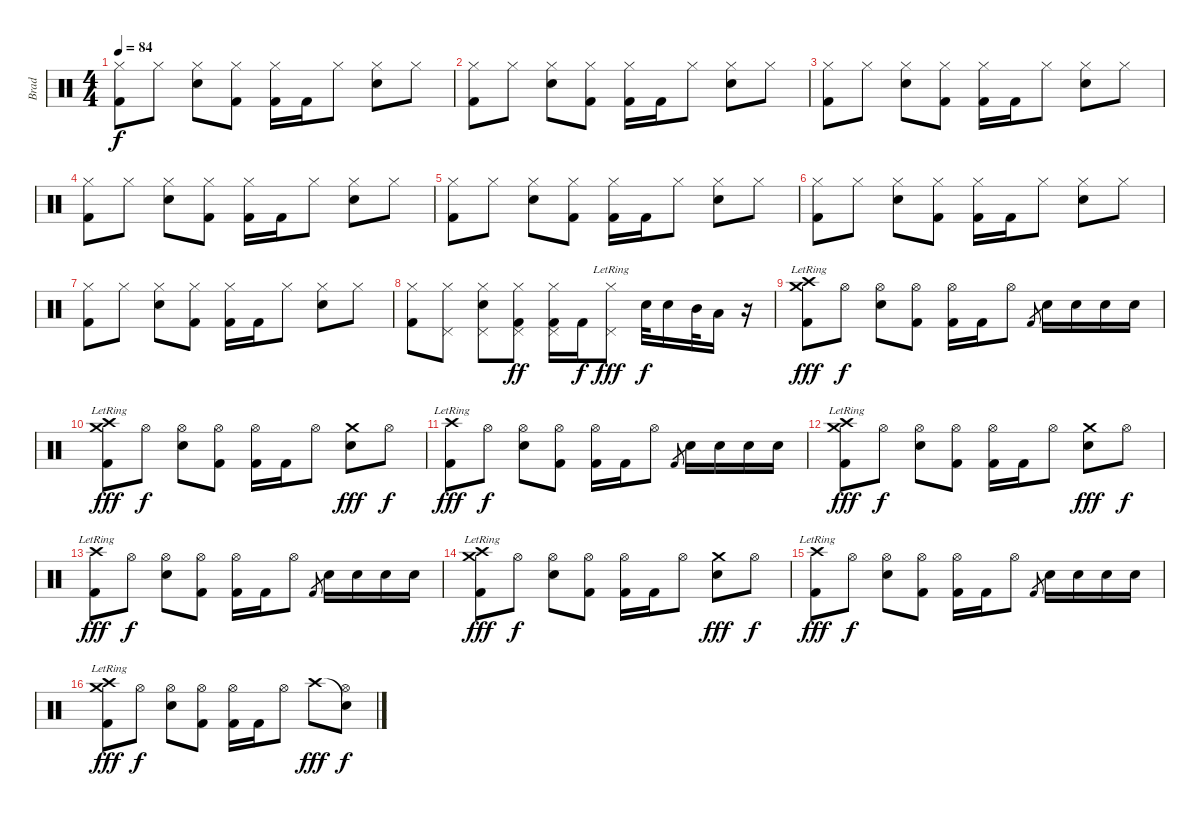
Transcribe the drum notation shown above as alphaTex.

\track ("Brad" "Brad") {instrument percussion}
\staff {score}
\articulation defaults
\ts (4 4)
\tempo 84
\clef neutral
\ks c
("Hi-Hat (closed)" "Kick (hit) 2").8{dy f} "Hi-Hat (closed)".8 ("Hi-Hat (closed)" "Electric Snare (hit)").8 ("Hi-Hat (closed)" "Kick (hit) 2").8 ("Hi-Hat (closed)" "Kick (hit) 2").16 "Kick (hit) 2".16 "Hi-Hat (closed)".8 ("Hi-Hat (closed)" "Electric Snare (hit)").8 "Hi-Hat (closed)".8 |
("Hi-Hat (closed)" "Kick (hit) 2").8 "Hi-Hat (closed)".8 ("Hi-Hat (closed)" "Electric Snare (hit)").8 ("Hi-Hat (closed)" "Kick (hit) 2").8 ("Hi-Hat (closed)" "Kick (hit) 2").16 "Kick (hit) 2".16 "Hi-Hat (closed)".8 ("Hi-Hat (closed)" "Electric Snare (hit)").8 "Hi-Hat (closed)".8 |
("Hi-Hat (closed)" "Kick (hit) 2").8 "Hi-Hat (closed)".8 ("Hi-Hat (closed)" "Electric Snare (hit)").8 ("Hi-Hat (closed)" "Kick (hit) 2").8 ("Hi-Hat (closed)" "Kick (hit) 2").16 "Kick (hit) 2".16 "Hi-Hat (closed)".8 ("Hi-Hat (closed)" "Electric Snare (hit)").8 "Hi-Hat (closed)".8 |
("Hi-Hat (closed)" "Kick (hit) 2").8 "Hi-Hat (closed)".8 ("Hi-Hat (closed)" "Electric Snare (hit)").8 ("Hi-Hat (closed)" "Kick (hit) 2").8 ("Hi-Hat (closed)" "Kick (hit) 2").16 "Kick (hit) 2".16 "Hi-Hat (closed)".8 ("Hi-Hat (closed)" "Electric Snare (hit)").8 "Hi-Hat (closed)".8 |
("Hi-Hat (closed)" "Kick (hit) 2").8 "Hi-Hat (closed)".8 ("Hi-Hat (closed)" "Electric Snare (hit)").8 ("Hi-Hat (closed)" "Kick (hit) 2").8 ("Hi-Hat (closed)" "Kick (hit) 2").16 "Kick (hit) 2".16 "Hi-Hat (closed)".8 ("Hi-Hat (closed)" "Electric Snare (hit)").8 "Hi-Hat (closed)".8 |
("Hi-Hat (closed)" "Kick (hit) 2").8 "Hi-Hat (closed)".8 ("Hi-Hat (closed)" "Electric Snare (hit)").8 ("Hi-Hat (closed)" "Kick (hit) 2").8 ("Hi-Hat (closed)" "Kick (hit) 2").16 "Kick (hit) 2".16 "Hi-Hat (closed)".8 ("Hi-Hat (closed)" "Electric Snare (hit)").8 "Hi-Hat (closed)".8 |
("Hi-Hat (closed)" "Kick (hit) 2").8 "Hi-Hat (closed)".8 ("Hi-Hat (closed)" "Electric Snare (hit)").8 ("Hi-Hat (closed)" "Kick (hit) 2").8 ("Hi-Hat (closed)" "Kick (hit) 2").16 "Kick (hit) 2".16 "Hi-Hat (closed)".8 ("Hi-Hat (closed)" "Electric Snare (hit)").8 "Hi-Hat (closed)".8 |
("Hi-Hat (closed)" "Kick (hit) 2").8 ("Pedal Hi-Hat (hit)" "Hi-Hat (closed)").8 ("Pedal Hi-Hat (hit)" "Hi-Hat (closed)" "Electric Snare (hit)").8 ("Pedal Hi-Hat (hit)" "Hi-Hat (closed)" "Kick (hit) 2").8{dy ff} ("Pedal Hi-Hat (hit)" "Hi-Hat (closed)" "Kick (hit) 2").16 "Kick (hit) 2".16{dy f} ("Pedal Hi-Hat (hit)" "Hi-Hat (closed)"{lr}).8{dy fff} "Electric Snare (hit)".32{dy f} "Electric Snare (hit)".16 "Mid Tom (hit)".32 "Low Tom (hit)".16 r.16 |
("Crash high (hit)"{lr} "Crash medium (hit)" "Kick (hit) 2").8{dy fff} "Hi-Hat (open)".8{dy f} ("Hi-Hat (open)" "Electric Snare (hit)").8 ("Hi-Hat (open)" "Kick (hit) 2").8 ("Hi-Hat (open)" "Kick (hit) 2").16 "Kick (hit) 2".16 "Hi-Hat (open)".8 "Kick (hit) 2".8{gr} "Electric Snare (hit)".16 "Electric Snare (hit)".16 "Electric Snare (hit)".16 "Electric Snare (hit)".16 |
("Crash high (hit)"{lr} "Crash medium (hit)"{lr} "Kick (hit) 2").8{dy fff} "Hi-Hat (open)".8{dy f} ("Hi-Hat (open)" "Electric Snare (hit)").8 ("Hi-Hat (open)" "Kick (hit) 2").8 ("Hi-Hat (open)" "Kick (hit) 2").16 "Kick (hit) 2".16 "Hi-Hat (open)".8 ("Crash medium (hit)" "Electric Snare (hit)").8{dy fff} "Hi-Hat (open)".8{dy f} |
("Crash high (hit)"{lr} "Kick (hit) 2").8{dy fff} "Hi-Hat (open)".8{dy f} ("Hi-Hat (open)" "Electric Snare (hit)").8 ("Hi-Hat (open)" "Kick (hit) 2").8 ("Hi-Hat (open)" "Kick (hit) 2").16 "Kick (hit) 2".16 "Hi-Hat (open)".8 "Kick (hit) 2".8{gr} "Electric Snare (hit)".16 "Electric Snare (hit)".16 "Electric Snare (hit)".16 "Electric Snare (hit)".16 |
("Crash high (hit)"{lr} "Crash medium (hit)"{lr} "Kick (hit) 2").8{dy fff} "Hi-Hat (open)".8{dy f} ("Hi-Hat (open)" "Electric Snare (hit)").8 ("Hi-Hat (open)" "Kick (hit) 2").8 ("Hi-Hat (open)" "Kick (hit) 2").16 "Kick (hit) 2".16 "Hi-Hat (open)".8 ("Crash medium (hit)" "Electric Snare (hit)").8{dy fff} "Hi-Hat (open)".8{dy f} |
("Crash high (hit)"{lr} "Kick (hit) 2").8{dy fff} "Hi-Hat (open)".8{dy f} ("Hi-Hat (open)" "Electric Snare (hit)").8 ("Hi-Hat (open)" "Kick (hit) 2").8 ("Hi-Hat (open)" "Kick (hit) 2").16 "Kick (hit) 2".16 "Hi-Hat (open)".8 "Kick (hit) 2".8{gr} "Electric Snare (hit)".16 "Electric Snare (hit)".16 "Electric Snare (hit)".16 "Electric Snare (hit)".16 |
("Crash high (hit)"{lr} "Crash medium (hit)"{lr} "Kick (hit) 2").8{dy fff} "Hi-Hat (open)".8{dy f} ("Hi-Hat (open)" "Electric Snare (hit)").8 ("Hi-Hat (open)" "Kick (hit) 2").8 ("Hi-Hat (open)" "Kick (hit) 2").16 "Kick (hit) 2".16 "Hi-Hat (open)".8 ("Crash medium (hit)" "Electric Snare (hit)").8{dy fff} "Hi-Hat (open)".8{dy f} |
("Crash high (hit)"{lr} "Kick (hit) 2").8{dy fff} "Hi-Hat (open)".8{dy f} ("Hi-Hat (open)" "Electric Snare (hit)").8 ("Hi-Hat (open)" "Kick (hit) 2").8 ("Hi-Hat (open)" "Kick (hit) 2").16 "Kick (hit) 2".16 "Hi-Hat (open)".8 "Kick (hit) 2".8{gr} "Electric Snare (hit)".16 "Electric Snare (hit)".16 "Electric Snare (hit)".16 "Electric Snare (hit)".16 |
("Crash high (hit)"{lr} "Crash medium (hit)"{lr} "Kick (hit) 2").8{dy fff} "Hi-Hat (open)".8{dy f} ("Hi-Hat (open)" "Electric Snare (hit)").8 ("Hi-Hat (open)" "Kick (hit) 2").8 ("Hi-Hat (open)" "Kick (hit) 2").16 "Kick (hit) 2".16 "Hi-Hat (open)".8 "Crash high (hit)".8{dy fff} ("Snare (hit)"{t} "Hi-Hat (open)").8{dy f}
